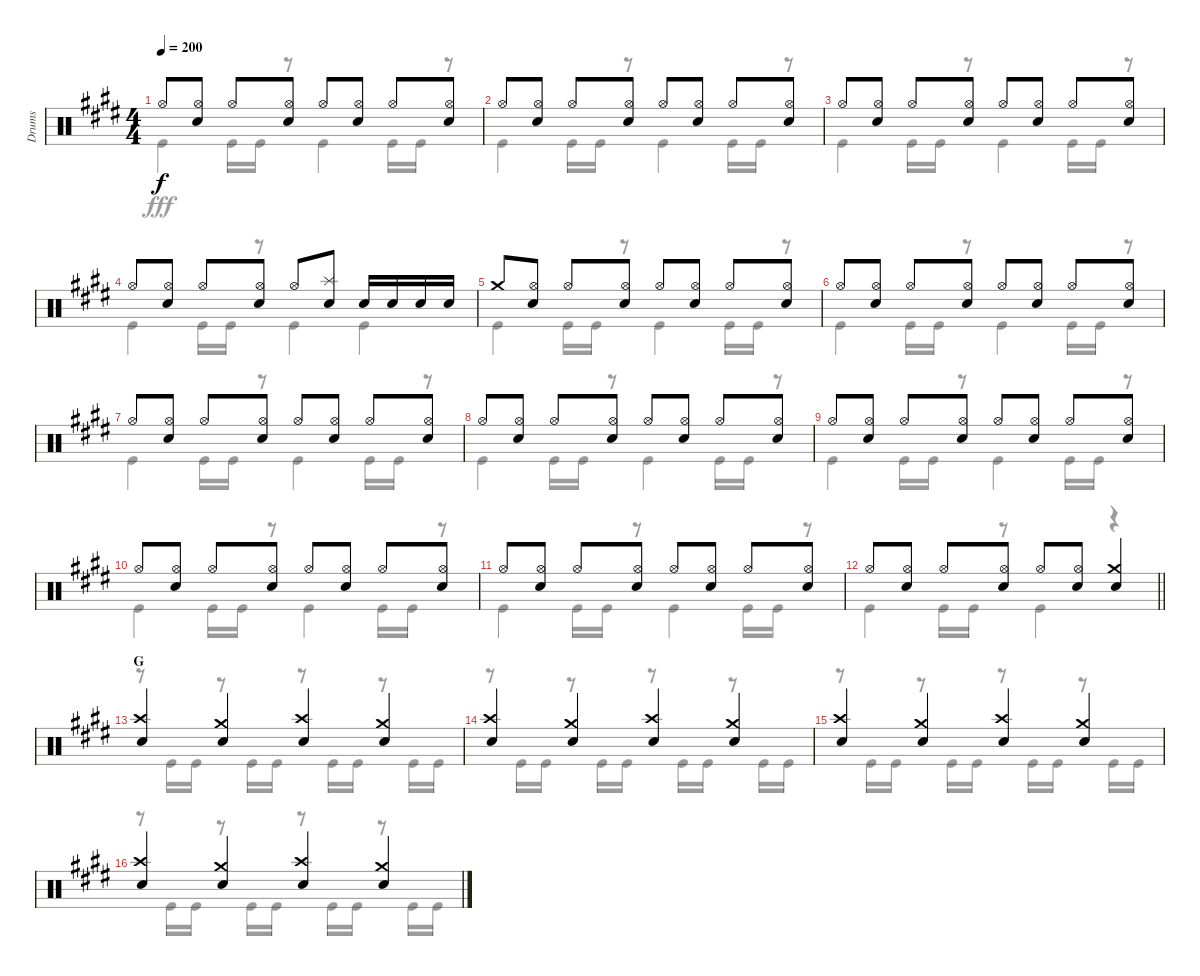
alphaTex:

\track ("Drums" "Drums") {instrument percussion}
\staff {score}
\articulation defaults
\voice
\ts (4 4)
\tempo 200
\clef neutral
\ks e "Hi-Hat (open)".8{dy f}
("Hi-Hat (open)" "Snare (hit) 2").8 "Hi-Hat (open)".8 ("Hi-Hat (open)" "Snare (hit) 2").8 "Hi-Hat (open)".8 ("Hi-Hat (open)" "Snare (hit) 2").8 "Hi-Hat (open)".8 ("Hi-Hat (open)" "Snare (hit) 2").8 |
"Hi-Hat (open)".8 ("Hi-Hat (open)" "Snare (hit) 2").8 "Hi-Hat (open)".8 ("Hi-Hat (open)" "Snare (hit) 2").8 "Hi-Hat (open)".8 ("Hi-Hat (open)" "Snare (hit) 2").8 "Hi-Hat (open)".8 ("Hi-Hat (open)" "Snare (hit) 2").8 |
"Hi-Hat (open)".8 ("Hi-Hat (open)" "Snare (hit) 2").8 "Hi-Hat (open)".8 ("Hi-Hat (open)" "Snare (hit) 2").8 "Hi-Hat (open)".8 ("Hi-Hat (open)" "Snare (hit) 2").8 "Hi-Hat (open)".8 ("Hi-Hat (open)" "Snare (hit) 2").8 |
"Hi-Hat (open)".8 ("Hi-Hat (open)" "Snare (hit) 2").8 "Hi-Hat (open)".8 ("Hi-Hat (open)" "Snare (hit) 2").8 "Hi-Hat (open)".8 ("Splash (hit)" "Snare (hit) 2").8 "Snare (hit) 2".16 "Snare (hit) 2".16 "Snare (hit) 2".16 "Snare (hit) 2".16 |
"Crash medium (hit)".8 ("Hi-Hat (open)" "Snare (hit) 2").8 "Hi-Hat (open)".8 ("Hi-Hat (open)" "Snare (hit) 2").8 "Hi-Hat (open)".8 ("Hi-Hat (open)" "Snare (hit) 2").8 "Hi-Hat (open)".8 ("Hi-Hat (open)" "Snare (hit) 2").8 |
"Hi-Hat (open)".8 ("Hi-Hat (open)" "Snare (hit) 2").8 "Hi-Hat (open)".8 ("Hi-Hat (open)" "Snare (hit) 2").8 "Hi-Hat (open)".8 ("Hi-Hat (open)" "Snare (hit) 2").8 "Hi-Hat (open)".8 ("Hi-Hat (open)" "Snare (hit) 2").8 |
"Hi-Hat (open)".8 ("Hi-Hat (open)" "Snare (hit) 2").8 "Hi-Hat (open)".8 ("Hi-Hat (open)" "Snare (hit) 2").8 "Hi-Hat (open)".8 ("Hi-Hat (open)" "Snare (hit) 2").8 "Hi-Hat (open)".8 ("Hi-Hat (open)" "Snare (hit) 2").8 |
"Hi-Hat (open)".8 ("Hi-Hat (open)" "Snare (hit) 2").8 "Hi-Hat (open)".8 ("Hi-Hat (open)" "Snare (hit) 2").8 "Hi-Hat (open)".8 ("Hi-Hat (open)" "Snare (hit) 2").8 "Hi-Hat (open)".8 ("Hi-Hat (open)" "Snare (hit) 2").8 |
"Hi-Hat (open)".8 ("Hi-Hat (open)" "Snare (hit) 2").8 "Hi-Hat (open)".8 ("Hi-Hat (open)" "Snare (hit) 2").8 "Hi-Hat (open)".8 ("Hi-Hat (open)" "Snare (hit) 2").8 "Hi-Hat (open)".8 ("Hi-Hat (open)" "Snare (hit) 2").8 |
"Hi-Hat (open)".8 ("Hi-Hat (open)" "Snare (hit) 2").8 "Hi-Hat (open)".8 ("Hi-Hat (open)" "Snare (hit) 2").8 "Hi-Hat (open)".8 ("Hi-Hat (open)" "Snare (hit) 2").8 "Hi-Hat (open)".8 ("Hi-Hat (open)" "Snare (hit) 2").8 |
"Hi-Hat (open)".8 ("Hi-Hat (open)" "Snare (hit) 2").8 "Hi-Hat (open)".8 ("Hi-Hat (open)" "Snare (hit) 2").8 "Hi-Hat (open)".8 ("Hi-Hat (open)" "Snare (hit) 2").8 "Hi-Hat (open)".8 ("Hi-Hat (open)" "Snare (hit) 2").8 |
\barLineRight lightlight "Hi-Hat (open)".8
("Hi-Hat (open)" "Snare (hit) 2").8 "Hi-Hat (open)".8 ("Hi-Hat (open)" "Snare (hit) 2").8 "Hi-Hat (open)".8 ("Hi-Hat (open)" "Snare (hit) 2").8 ("Crash medium (hit)" "Snare (hit) 2").4 |
\section ("" "G")
("Crash high (hit)" "Snare (hit) 2").4 ("Crash medium (hit)" "Snare (hit) 2").4 ("Crash high (hit)" "Snare (hit) 2").4 ("Crash medium (hit)" "Snare (hit) 2").4 |
("Crash high (hit)" "Snare (hit) 2").4 ("Crash medium (hit)" "Snare (hit) 2").4 ("Crash high (hit)" "Snare (hit) 2").4 ("Crash medium (hit)" "Snare (hit) 2").4 |
("Crash high (hit)" "Snare (hit) 2").4 ("Crash medium (hit)" "Snare (hit) 2").4 ("Crash high (hit)" "Snare (hit) 2").4 ("Crash medium (hit)" "Snare (hit) 2").4 |
("Crash high (hit)" "Snare (hit) 2").4 ("Crash medium (hit)" "Snare (hit) 2").4 ("Crash high (hit)" "Snare (hit) 2").4 ("Crash medium (hit)" "Snare (hit) 2").4
\voice
\clef neutral
\ottava regular
\simile none
\ks e "Kick (hit)".4{dy fff} "Kick (hit)".16 "Kick (hit)".16
r.8 "Kick (hit)".4 "Kick (hit)".16 "Kick (hit)".16 r.8 |
"Kick (hit)".4 "Kick (hit)".16 "Kick (hit)".16 r.8 "Kick (hit)".4 "Kick (hit)".16 "Kick (hit)".16 r.8 |
"Kick (hit)".4 "Kick (hit)".16 "Kick (hit)".16 r.8 "Kick (hit)".4 "Kick (hit)".16 "Kick (hit)".16 r.8 |
"Kick (hit)".4 "Kick (hit)".16 "Kick (hit)".16 r.8 "Kick (hit)".4 "Kick (hit)".4 |
"Kick (hit)".4 "Kick (hit)".16 "Kick (hit)".16 r.8 "Kick (hit)".4 "Kick (hit)".16 "Kick (hit)".16 r.8 |
"Kick (hit)".4 "Kick (hit)".16 "Kick (hit)".16 r.8 "Kick (hit)".4 "Kick (hit)".16 "Kick (hit)".16 r.8 |
"Kick (hit)".4 "Kick (hit)".16 "Kick (hit)".16 r.8 "Kick (hit)".4 "Kick (hit)".16 "Kick (hit)".16 r.8 |
"Kick (hit)".4 "Kick (hit)".16 "Kick (hit)".16 r.8 "Kick (hit)".4 "Kick (hit)".16 "Kick (hit)".16 r.8 |
"Kick (hit)".4 "Kick (hit)".16 "Kick (hit)".16 r.8 "Kick (hit)".4 "Kick (hit)".16 "Kick (hit)".16 r.8 |
"Kick (hit)".4 "Kick (hit)".16 "Kick (hit)".16 r.8 "Kick (hit)".4 "Kick (hit)".16 "Kick (hit)".16 r.8 |
"Kick (hit)".4 "Kick (hit)".16 "Kick (hit)".16 r.8 "Kick (hit)".4 "Kick (hit)".16 "Kick (hit)".16 r.8 |
\barLineRight lightlight "Kick (hit)".4 "Kick (hit)".16 "Kick (hit)".16
r.8 "Kick (hit)".4 r.4 |
r.8 "Kick (hit)".16 "Kick (hit)".16 r.8 "Kick (hit)".16 "Kick (hit)".16 r.8 "Kick (hit)".16 "Kick (hit)".16 r.8 "Kick (hit)".16 "Kick (hit)".16 |
r.8 "Kick (hit)".16 "Kick (hit)".16 r.8 "Kick (hit)".16 "Kick (hit)".16 r.8 "Kick (hit)".16 "Kick (hit)".16 r.8 "Kick (hit)".16 "Kick (hit)".16 |
r.8 "Kick (hit)".16 "Kick (hit)".16 r.8 "Kick (hit)".16 "Kick (hit)".16 r.8 "Kick (hit)".16 "Kick (hit)".16 r.8 "Kick (hit)".16 "Kick (hit)".16 |
r.8 "Kick (hit)".16 "Kick (hit)".16 r.8 "Kick (hit)".16 "Kick (hit)".16 r.8 "Kick (hit)".16 "Kick (hit)".16 r.8 "Kick (hit)".16 "Kick (hit)".16
